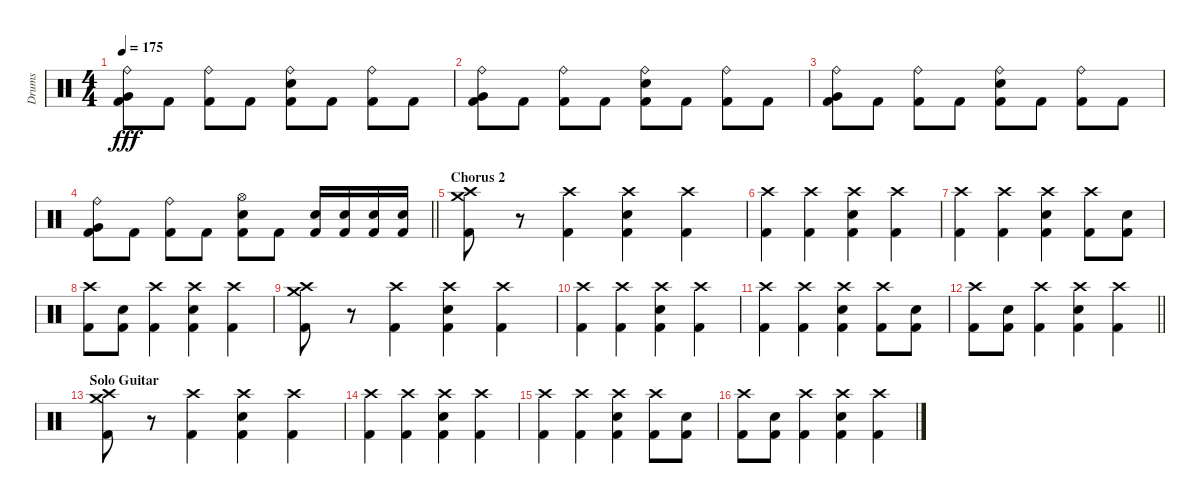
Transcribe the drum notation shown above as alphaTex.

\track ("Drums" "Drums") {instrument percussion}
\staff {score}
\articulation defaults
\ts (4 4)
\tempo 175
\clef neutral
\ks c
("Ride (bell)" "Very Low Tom (hit)" "Kick (hit) 2").8{dy fff} "Kick (hit) 2".8 ("Ride (bell)" "Kick (hit) 2").8 "Kick (hit) 2".8 ("Ride (bell)" "Electric Snare (hit)" "Kick (hit) 2").8 "Kick (hit) 2".8 ("Ride (bell)" "Kick (hit) 2").8 "Kick (hit) 2".8 |
("Ride (bell)" "Very Low Tom (hit)" "Kick (hit) 2").8 "Kick (hit) 2".8 ("Ride (bell)" "Kick (hit) 2").8 "Kick (hit) 2".8 ("Ride (bell)" "Electric Snare (hit)" "Kick (hit) 2").8 "Kick (hit) 2".8 ("Ride (bell)" "Kick (hit) 2").8 "Kick (hit) 2".8 |
("Ride (bell)" "Very Low Tom (hit)" "Kick (hit) 2").8 "Kick (hit) 2".8 ("Ride (bell)" "Kick (hit) 2").8 "Kick (hit) 2".8 ("Ride (bell)" "Electric Snare (hit)" "Kick (hit) 2").8 "Kick (hit) 2".8 ("Ride (bell)" "Kick (hit) 2").8 "Kick (hit) 2".8 |
\barLineRight lightlight
("Ride (bell)" "Very Low Tom (hit)" "Kick (hit) 2").8 "Kick (hit) 2".8 ("Ride (bell)" "Kick (hit) 2").8 "Kick (hit) 2".8 ("Hi-Hat (open)" "Electric Snare (hit)" "Kick (hit) 2").8 "Kick (hit) 2".8 ("Electric Snare (hit)" "Kick (hit) 2").16 ("Electric Snare (hit)" "Kick (hit) 2").16 ("Electric Snare (hit)" "Kick (hit) 2").16 ("Electric Snare (hit)" "Kick (hit) 2").16 |
\section ("" "Chorus 2")
("Crash high (hit)" "Crash medium (hit)" "Kick (hit) 2").8 r.8 ("Crash high (hit)" "Kick (hit) 2").4 ("Crash high (hit)" "Electric Snare (hit)" "Kick (hit) 2").4 ("Crash high (hit)" "Kick (hit) 2").4 |
("Crash high (hit)" "Kick (hit) 2").4 ("Crash high (hit)" "Kick (hit) 2").4 ("Crash high (hit)" "Electric Snare (hit)" "Kick (hit) 2").4 ("Crash high (hit)" "Kick (hit) 2").4 |
("Crash high (hit)" "Kick (hit) 2").4 ("Crash high (hit)" "Kick (hit) 2").4 ("Crash high (hit)" "Electric Snare (hit)" "Kick (hit) 2").4 ("Crash high (hit)" "Kick (hit) 2").8 ("Electric Snare (hit)" "Kick (hit) 2").8 |
("Crash high (hit)" "Kick (hit) 2").8 ("Electric Snare (hit)" "Kick (hit) 2").8 ("Crash high (hit)" "Kick (hit) 2").4 ("Crash high (hit)" "Electric Snare (hit)" "Kick (hit) 2").4 ("Crash high (hit)" "Kick (hit) 2").4 |
("Crash high (hit)" "Crash medium (hit)" "Kick (hit) 2").8 r.8 ("Crash high (hit)" "Kick (hit) 2").4 ("Crash high (hit)" "Electric Snare (hit)" "Kick (hit) 2").4 ("Crash high (hit)" "Kick (hit) 2").4 |
("Crash high (hit)" "Kick (hit) 2").4 ("Crash high (hit)" "Kick (hit) 2").4 ("Crash high (hit)" "Electric Snare (hit)" "Kick (hit) 2").4 ("Crash high (hit)" "Kick (hit) 2").4 |
("Crash high (hit)" "Kick (hit) 2").4 ("Crash high (hit)" "Kick (hit) 2").4 ("Crash high (hit)" "Electric Snare (hit)" "Kick (hit) 2").4 ("Crash high (hit)" "Kick (hit) 2").8 ("Electric Snare (hit)" "Kick (hit) 2").8 |
\barLineRight lightlight
("Crash high (hit)" "Kick (hit) 2").8 ("Electric Snare (hit)" "Kick (hit) 2").8 ("Crash high (hit)" "Kick (hit) 2").4 ("Crash high (hit)" "Electric Snare (hit)" "Kick (hit) 2").4 ("Crash high (hit)" "Kick (hit) 2").4 |
\section ("" "Solo Guitar")
("Crash high (hit)" "Crash medium (hit)" "Kick (hit) 2").8 r.8 ("Crash high (hit)" "Kick (hit) 2").4 ("Crash high (hit)" "Electric Snare (hit)" "Kick (hit) 2").4 ("Crash high (hit)" "Kick (hit) 2").4 |
("Crash high (hit)" "Kick (hit) 2").4 ("Crash high (hit)" "Kick (hit) 2").4 ("Crash high (hit)" "Electric Snare (hit)" "Kick (hit) 2").4 ("Crash high (hit)" "Kick (hit) 2").4 |
("Crash high (hit)" "Kick (hit) 2").4 ("Crash high (hit)" "Kick (hit) 2").4 ("Crash high (hit)" "Electric Snare (hit)" "Kick (hit) 2").4 ("Crash high (hit)" "Kick (hit) 2").8 ("Electric Snare (hit)" "Kick (hit) 2").8 |
("Crash high (hit)" "Kick (hit) 2").8 ("Electric Snare (hit)" "Kick (hit) 2").8 ("Crash high (hit)" "Kick (hit) 2").4 ("Crash high (hit)" "Electric Snare (hit)" "Kick (hit) 2").4 ("Crash high (hit)" "Kick (hit) 2").4
